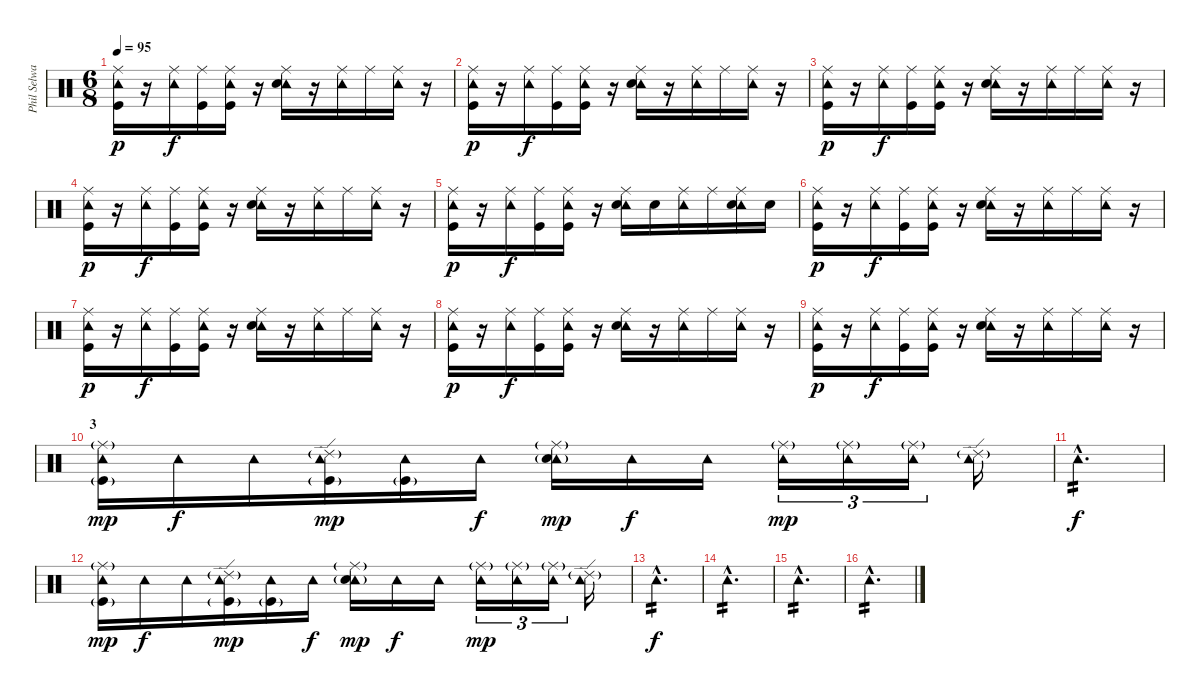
\track ("Phil Selway (Percussions)" "Phil Selwa") {instrument percussion}
\staff {score}
\articulation defaults
\ts (6 8)
\tempo 95
\clef neutral
\ks c
("Ride (middle)" "Tambourine (hit)" "Kick (hit)").16{dy p} r.16 ("Ride (middle)" "Tambourine (hit)").16{dy f} ("Ride (middle)" "Kick (hit)").16 ("Ride (middle)" "Tambourine (hit)" "Kick (hit)").16 r.16 ("Ride (middle)" "Tambourine (hit)" "Electric Snare (hit)").16 r.16 ("Ride (middle)" "Tambourine (hit)").16 "Ride (middle)".16 ("Ride (middle)" "Tambourine (hit)").16 r.16 |
("Ride (middle)" "Tambourine (hit)" "Kick (hit)").16{dy p} r.16 ("Ride (middle)" "Tambourine (hit)").16{dy f} ("Ride (middle)" "Kick (hit)").16 ("Ride (middle)" "Tambourine (hit)" "Kick (hit)").16 r.16 ("Ride (middle)" "Tambourine (hit)" "Electric Snare (hit)").16 r.16 ("Ride (middle)" "Tambourine (hit)").16 "Ride (middle)".16 ("Ride (middle)" "Tambourine (hit)").16 r.16 |
("Ride (middle)" "Tambourine (hit)" "Kick (hit)").16{dy p} r.16 ("Ride (middle)" "Tambourine (hit)").16{dy f} ("Ride (middle)" "Kick (hit)").16 ("Ride (middle)" "Tambourine (hit)" "Kick (hit)").16 r.16 ("Ride (middle)" "Tambourine (hit)" "Electric Snare (hit)").16 r.16 ("Ride (middle)" "Tambourine (hit)").16 "Ride (middle)".16 ("Ride (middle)" "Tambourine (hit)").16 r.16 |
("Ride (middle)" "Tambourine (hit)" "Kick (hit)").16{dy p} r.16 ("Ride (middle)" "Tambourine (hit)").16{dy f} ("Ride (middle)" "Kick (hit)").16 ("Ride (middle)" "Tambourine (hit)" "Kick (hit)").16 r.16 ("Ride (middle)" "Tambourine (hit)" "Electric Snare (hit)").16 r.16 ("Ride (middle)" "Tambourine (hit)").16 "Ride (middle)".16 ("Ride (middle)" "Tambourine (hit)").16 r.16 |
("Ride (middle)" "Tambourine (hit)" "Kick (hit)").16{dy p} r.16 ("Ride (middle)" "Tambourine (hit)").16{dy f} ("Ride (middle)" "Kick (hit)").16 ("Ride (middle)" "Tambourine (hit)" "Kick (hit)").16 r.16 ("Ride (middle)" "Tambourine (hit)" "Electric Snare (hit)").16 "Electric Snare (hit)".16 ("Ride (middle)" "Tambourine (hit)").16 "Ride (middle)".16 ("Ride (middle)" "Tambourine (hit)" "Electric Snare (hit)").16 "Snare (hit) 2".16 |
("Ride (middle)" "Tambourine (hit)" "Kick (hit)").16{dy p} r.16 ("Ride (middle)" "Tambourine (hit)").16{dy f} ("Ride (middle)" "Kick (hit)").16 ("Ride (middle)" "Tambourine (hit)" "Kick (hit)").16 r.16 ("Ride (middle)" "Tambourine (hit)" "Electric Snare (hit)").16 r.16 ("Ride (middle)" "Tambourine (hit)").16 "Ride (middle)".16 ("Ride (middle)" "Tambourine (hit)").16 r.16 |
("Ride (middle)" "Tambourine (hit)" "Kick (hit)").16{dy p} r.16 ("Ride (middle)" "Tambourine (hit)").16{dy f} ("Ride (middle)" "Kick (hit)").16 ("Ride (middle)" "Tambourine (hit)" "Kick (hit)").16 r.16 ("Ride (middle)" "Tambourine (hit)" "Electric Snare (hit)").16 r.16 ("Ride (middle)" "Tambourine (hit)").16 "Ride (middle)".16 ("Ride (middle)" "Tambourine (hit)").16 r.16 |
("Ride (middle)" "Tambourine (hit)" "Kick (hit)").16{dy p} r.16 ("Ride (middle)" "Tambourine (hit)").16{dy f} ("Ride (middle)" "Kick (hit)").16 ("Ride (middle)" "Tambourine (hit)" "Kick (hit)").16 r.16 ("Ride (middle)" "Tambourine (hit)" "Electric Snare (hit)").16 r.16 ("Ride (middle)" "Tambourine (hit)").16 "Ride (middle)".16 ("Ride (middle)" "Tambourine (hit)").16 r.16 |
("Ride (middle)" "Tambourine (hit)" "Kick (hit)").16{dy p} r.16 ("Ride (middle)" "Tambourine (hit)").16{dy f} ("Ride (middle)" "Kick (hit)").16 ("Ride (middle)" "Tambourine (hit)" "Kick (hit)").16 r.16 ("Ride (middle)" "Tambourine (hit)" "Electric Snare (hit)").16 r.16 ("Ride (middle)" "Tambourine (hit)").16 "Ride (middle)".16 ("Ride (middle)" "Tambourine (hit)").16 r.16 |
\section ("" "3")
("Ride (middle)"{g} "Tambourine (hit)" "Kick (hit)"{g}).16{dy mp} "Tambourine (hit)".16{dy f} "Tambourine (hit)".16 ("Ride (edge) 2"{g} "Tambourine (hit)" "Kick (hit)"{g}).16{dy mp} ("Tambourine (hit)" "Kick (hit)"{g}).16 "Tambourine (hit)".16{dy f} ("Ride (middle)"{g} "Tambourine (hit)" "Electric Snare (hit)"{g}).16{dy mp} "Tambourine (hit)".16{dy f} "Tambourine (hit)".16 ("Ride (middle)"{g} "Tambourine (hit)").16{tu (3 2) dy mp} ("Ride (middle)"{g} "Tambourine (hit)").16{tu (3 2)} ("Ride (middle)"{g} "Tambourine (hit)").16{tu (3 2)} ("Ride (edge) 2"{g} "Tambourine (hit)").16 |
"Tambourine (hit)"{hac}.2{d tp 2 dy f} |
("Ride (middle)"{g} "Tambourine (hit)" "Kick (hit)"{g}).16{dy mp} "Tambourine (hit)".16{dy f} "Tambourine (hit)".16 ("Ride (edge) 2"{g} "Tambourine (hit)" "Kick (hit)"{g}).16{dy mp} ("Tambourine (hit)" "Kick (hit)"{g}).16 "Tambourine (hit)".16{dy f} ("Ride (middle)"{g} "Tambourine (hit)" "Electric Snare (hit)"{g}).16{dy mp} "Tambourine (hit)".16{dy f} "Tambourine (hit)".16 ("Ride (middle)"{g} "Tambourine (hit)").16{tu (3 2) dy mp} ("Ride (middle)"{g} "Tambourine (hit)").16{tu (3 2)} ("Ride (middle)"{g} "Tambourine (hit)").16{tu (3 2)} ("Ride (edge) 2"{g} "Tambourine (hit)").16 |
"Tambourine (hit)"{hac}.2{d tp 2 dy f} |
"Tambourine (hit)"{hac}.2{d tp 2} |
"Tambourine (hit)"{hac}.2{d tp 2} |
"Tambourine (hit)"{hac}.2{d tp 2}
